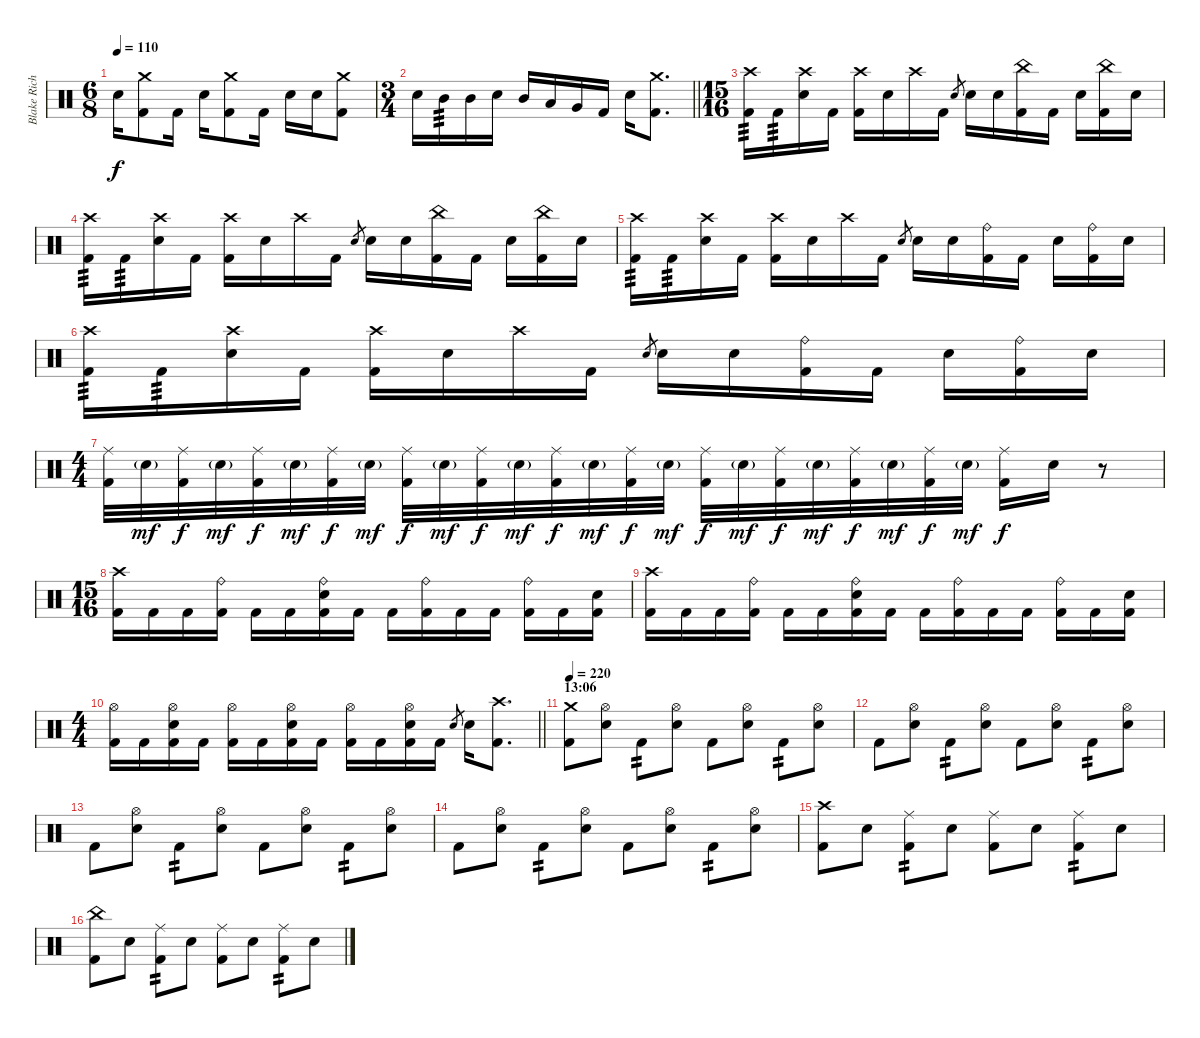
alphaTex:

\track ("Blake Richardson" "Blake Rich") {instrument percussion}
\staff {score}
\articulation defaults
\ts (6 8)
\tempo 110
\clef neutral
\ks c "Electric Snare (hit)".16{dy f}
("Crash medium (hit)" "Kick (hit) 2").8 "Kick (hit) 2".16{beam split} "Electric Snare (hit)".16 ("Crash medium (hit)" "Kick (hit) 2").8{beam merge} "Kick (hit) 2".16{beam split} "Electric Snare (hit)".16 "Electric Snare (hit)".16 ("Crash medium (hit)" "Kick (hit) 2").8 |
\ts (3 4)
\barLineRight lightlight "Electric Snare (hit)".16 "Mid Tom (hit)".16{tp 3} "Mid Tom (hit)".16 "Electric Snare (hit)".16{beam split} "Mid Tom (hit)".16 "Low Tom (hit)".16{beam merge} "Very Low Tom (hit)".16 "Kick (hit) 2".16{beam split} "Electric Snare (hit)".16
("Crash medium (hit)" "Kick (hit) 2").8{d} |
\ts (15 16)
("Crash high (hit)" "Kick (hit) 2").16{tp 3} "Kick (hit) 2".16{tp 3} ("Crash high (hit)" "Electric Snare (hit)").16 "Kick (hit) 2".16 ("Crash high (hit)" "Kick (hit) 2").16 "Electric Snare (hit)".16 "Crash high (hit)".16 "Kick (hit) 2".16 "Electric Snare (hit)".8{gr} "Electric Snare (hit)".16 "Electric Snare (hit)".16 ("China (hit)" "Kick (hit) 2").16 "Kick (hit) 2".16 "Electric Snare (hit)".16 ("China (hit)" "Kick (hit) 2").16 "Electric Snare (hit)".16 |
("Crash high (hit)" "Kick (hit) 2").16{tp 3} "Kick (hit) 2".16{tp 3} ("Crash high (hit)" "Electric Snare (hit)").16 "Kick (hit) 2".16 ("Crash high (hit)" "Kick (hit) 2").16 "Electric Snare (hit)".16 "Crash high (hit)".16 "Kick (hit) 2".16 "Electric Snare (hit)".8{gr} "Electric Snare (hit)".16 "Electric Snare (hit)".16 ("China (hit)" "Kick (hit) 2").16 "Kick (hit) 2".16 "Electric Snare (hit)".16 ("China (hit)" "Kick (hit) 2").16 "Electric Snare (hit)".16 |
("Crash high (hit)" "Kick (hit) 2").16{tp 3} "Kick (hit) 2".16{tp 3} ("Crash high (hit)" "Electric Snare (hit)").16 "Kick (hit) 2".16 ("Crash high (hit)" "Kick (hit) 2").16 "Electric Snare (hit)".16 "Crash high (hit)".16 "Kick (hit) 2".16 "Electric Snare (hit)".8{gr} "Electric Snare (hit)".16 "Electric Snare (hit)".16 ("Ride (bell)" "Kick (hit) 2").16 "Kick (hit) 2".16 "Electric Snare (hit)".16 ("Ride (bell)" "Kick (hit) 2").16 "Electric Snare (hit)".16 |
("Crash high (hit)" "Kick (hit) 2").16{tp 3} "Kick (hit) 2".16{tp 3} ("Crash high (hit)" "Electric Snare (hit)").16 "Kick (hit) 2".16 ("Crash high (hit)" "Kick (hit) 2").16 "Electric Snare (hit)".16 "Crash high (hit)".16 "Kick (hit) 2".16 "Electric Snare (hit)".8{gr} "Electric Snare (hit)".16 "Electric Snare (hit)".16 ("Ride (bell)" "Kick (hit) 2").16 "Kick (hit) 2".16 "Electric Snare (hit)".16 ("Ride (bell)" "Kick (hit) 2").16 "Electric Snare (hit)".16 |
\ts (4 4)
("Ride (middle)" "Kick (hit) 2").32 "Electric Snare (hit)"{g}.32{dy mf} ("Ride (middle)" "Kick (hit) 2").32{dy f} "Electric Snare (hit)"{g}.32{dy mf} ("Ride (middle)" "Kick (hit) 2").32{dy f} "Electric Snare (hit)"{g}.32{dy mf} ("Ride (middle)" "Kick (hit) 2").32{dy f} "Electric Snare (hit)"{g}.32{dy mf} ("Ride (middle)" "Kick (hit) 2").32{dy f} "Electric Snare (hit)"{g}.32{dy mf} ("Ride (middle)" "Kick (hit) 2").32{dy f} "Electric Snare (hit)"{g}.32{dy mf} ("Ride (middle)" "Kick (hit) 2").32{dy f} "Electric Snare (hit)"{g}.32{dy mf} ("Ride (middle)" "Kick (hit) 2").32{dy f} "Electric Snare (hit)"{g}.32{dy mf} ("Ride (middle)" "Kick (hit) 2").32{dy f} "Electric Snare (hit)"{g}.32{dy mf} ("Ride (middle)" "Kick (hit) 2").32{dy f} "Electric Snare (hit)"{g}.32{dy mf} ("Ride (middle)" "Kick (hit) 2").32{dy f} "Electric Snare (hit)"{g}.32{dy mf} ("Ride (middle)" "Kick (hit) 2").32{dy f} "Electric Snare (hit)"{g}.32{dy mf} ("Ride (middle)" "Kick (hit) 2").16{dy f} "Electric Snare (hit)".16 r.8 |
\ts (15 16)
("Crash high (hit)" "Kick (hit) 2").16 "Kick (hit) 2".16 "Kick (hit) 2".16 ("Ride (bell)" "Kick (hit) 2").16 "Kick (hit) 2".16 "Kick (hit) 2".16 ("Ride (bell)" "Electric Snare (hit)" "Kick (hit) 2").16 "Kick (hit) 2".16 "Kick (hit) 2".16 ("Ride (bell)" "Kick (hit) 2").16 "Kick (hit) 2".16 "Kick (hit) 2".16 ("Ride (bell)" "Kick (hit) 2").16 "Kick (hit) 2".16 ("Electric Snare (hit)" "Kick (hit) 2").16 |
("Crash high (hit)" "Kick (hit) 2").16 "Kick (hit) 2".16 "Kick (hit) 2".16 ("Ride (bell)" "Kick (hit) 2").16 "Kick (hit) 2".16 "Kick (hit) 2".16 ("Ride (bell)" "Electric Snare (hit)" "Kick (hit) 2").16 "Kick (hit) 2".16 "Kick (hit) 2".16 ("Ride (bell)" "Kick (hit) 2").16 "Kick (hit) 2".16 "Kick (hit) 2".16 ("Ride (bell)" "Kick (hit) 2").16 "Kick (hit) 2".16 ("Electric Snare (hit)" "Kick (hit) 2").16 |
\ts (4 4)
\barLineRight lightlight
("Hi-Hat (open)" "Kick (hit) 2").16 "Kick (hit) 2".16 ("Hi-Hat (open)" "Electric Snare (hit)" "Kick (hit) 2").16 "Kick (hit) 2".16 ("Hi-Hat (open)" "Kick (hit) 2").16 "Kick (hit) 2".16 ("Hi-Hat (open)" "Electric Snare (hit)" "Kick (hit) 2").16 "Kick (hit) 2".16 ("Hi-Hat (open)" "Kick (hit) 2").16 "Kick (hit) 2".16 ("Hi-Hat (open)" "Electric Snare (hit)" "Kick (hit) 2").16 "Kick (hit) 2".16 "Electric Snare (hit)".8{gr} "Electric Snare (hit)".16 ("Crash high (hit)" "Kick (hit) 2").8{d} |
\section ("" "13:06")
\tempo 220
("Crash medium (hit)" "Kick (hit) 2").8 ("Hi-Hat (open)" "Electric Snare (hit)").8 "Kick (hit) 2".8{tp 2} ("Hi-Hat (open)" "Electric Snare (hit)").8 "Kick (hit) 2".8 ("Hi-Hat (open)" "Electric Snare (hit)").8 "Kick (hit) 2".8{tp 2} ("Hi-Hat (open)" "Electric Snare (hit)").8 |
"Kick (hit) 2".8 ("Hi-Hat (open)" "Electric Snare (hit)").8 "Kick (hit) 2".8{tp 2} ("Hi-Hat (open)" "Electric Snare (hit)").8 "Kick (hit) 2".8 ("Hi-Hat (open)" "Electric Snare (hit)").8 "Kick (hit) 2".8{tp 2} ("Hi-Hat (open)" "Electric Snare (hit)").8 |
"Kick (hit) 2".8 ("Hi-Hat (open)" "Electric Snare (hit)").8 "Kick (hit) 2".8{tp 2} ("Hi-Hat (open)" "Electric Snare (hit)").8 "Kick (hit) 2".8 ("Hi-Hat (open)" "Electric Snare (hit)").8 "Kick (hit) 2".8{tp 2} ("Hi-Hat (open)" "Electric Snare (hit)").8 |
"Kick (hit) 2".8 ("Hi-Hat (open)" "Electric Snare (hit)").8 "Kick (hit) 2".8{tp 2} ("Hi-Hat (open)" "Electric Snare (hit)").8 "Kick (hit) 2".8 ("Hi-Hat (open)" "Electric Snare (hit)").8 "Kick (hit) 2".8{tp 2} ("Hi-Hat (open)" "Electric Snare (hit)").8 |
("Crash high (hit)" "Kick (hit) 2").8 "Electric Snare (hit)".8 ("Ride (middle)" "Kick (hit) 2").8{tp 2} "Electric Snare (hit)".8 ("Ride (middle)" "Kick (hit) 2").8 "Electric Snare (hit)".8 ("Ride (middle)" "Kick (hit) 2").8{tp 2} "Electric Snare (hit)".8 |
("China (hit)" "Kick (hit) 2").8 "Electric Snare (hit)".8 ("Ride (middle)" "Kick (hit) 2").8{tp 2} "Electric Snare (hit)".8 ("Ride (middle)" "Kick (hit) 2").8 "Electric Snare (hit)".8 ("Ride (middle)" "Kick (hit) 2").8{tp 2} "Electric Snare (hit)".8
